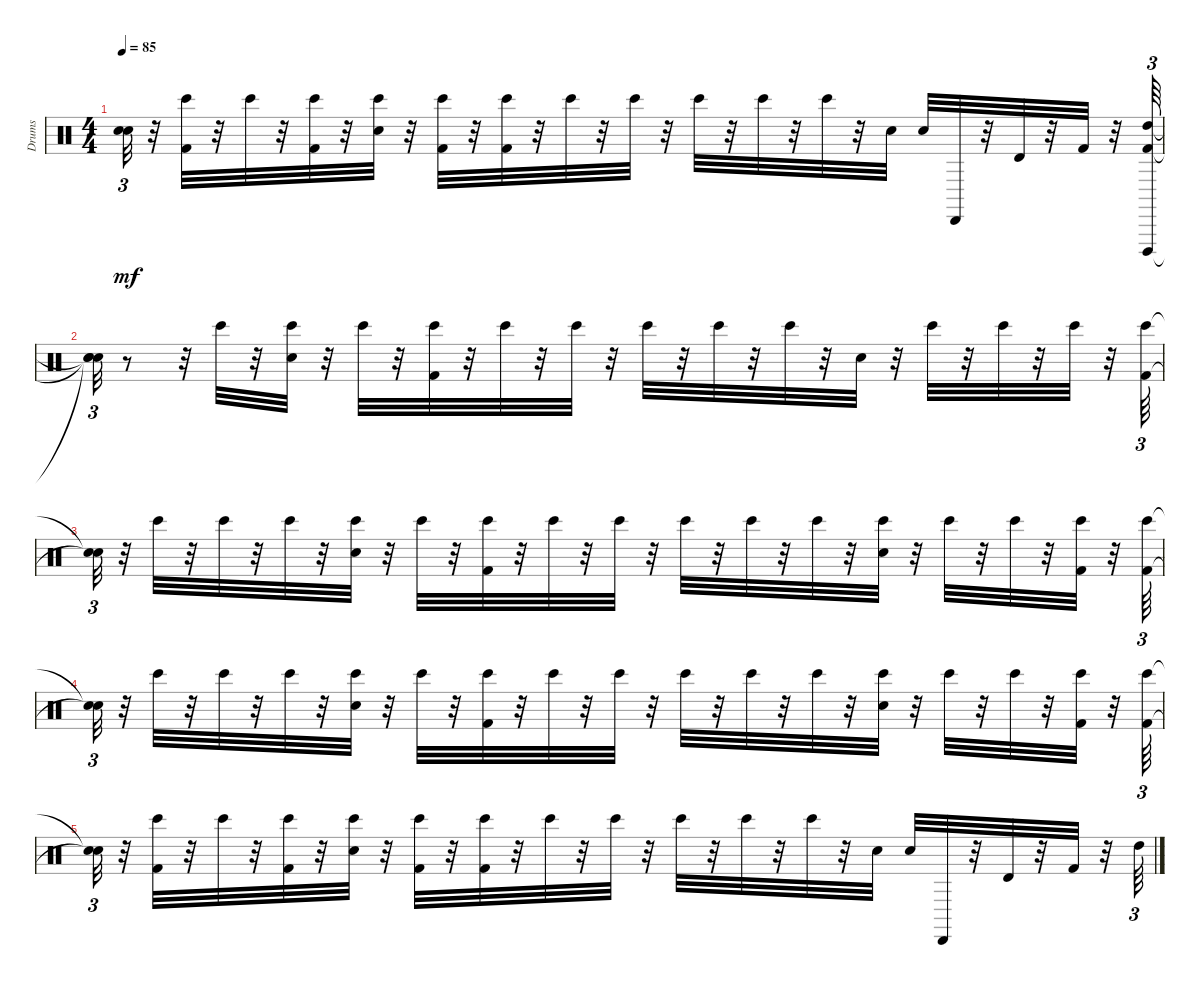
\track ("Drums" "Drums") {instrument percussion}
\staff {score}
\articulation defaults
\ts (4 4)
\tempo 85
\clef neutral
\ks c
("Snare (hit)"{t} "Snare (hit)"{t}).32{tu (3 2) dy mf} r.32 ("Kick (hit) 2" "Bongo High (hit)").32 r.32 "Bongo High (hit)".32 r.32 ("Bongo High (hit)" "Kick (hit) 2").32 r.32 ("Snare (hit) 2" "Bongo High (hit)").32 r.32 ("Kick (hit) 2" "Bongo High (hit)").32 r.32 ("Kick (hit) 2" "Bongo High (hit)").32 r.32 "Bongo High (hit)".32 r.32 "Bongo High (hit)".32 r.32 "Bongo High (hit)".32 r.32 "Bongo High (hit)".32 r.32 "Bongo High (hit)".32 r.32 "Snare (hit) 2".32 "Snare (hit) 2".32 "Cabasa (hit)".32 r.32 "Timbale high (hit)".32 r.32 "Kick (hit) 2".32 r.32 ("Kick (hit) 2" "High Tom (hit)" "Cuica (open)").64{tu (3 2)} |
("Snare (hit)"{t} "Snare (hit)"{t} "Snare (hit)"{t}).32{tu (3 2)} r.8 r.32 "Bongo High (hit)".32 r.32 ("Snare (hit) 2" "Bongo High (hit)").32 r.32 "Bongo High (hit)".32 r.32 ("Kick (hit) 2" "Bongo High (hit)").32 r.32 "Bongo High (hit)".32 r.32 "Bongo High (hit)".32 r.32 "Bongo High (hit)".32 r.32 "Bongo High (hit)".32 r.32 "Bongo High (hit)".32 r.32 "Snare (hit) 2".32 r.32 "Bongo High (hit)".32 r.32 "Bongo High (hit)".32 r.32 "Bongo High (hit)".32 r.32 ("Bongo High (hit)" "Kick (hit) 2").64{tu (3 2)} |
("Snare (hit)"{t} "Snare (hit)"{t}).32{tu (3 2)} r.32 "Bongo High (hit)".32 r.32 "Bongo High (hit)".32 r.32 "Bongo High (hit)".32 r.32 ("Snare (hit) 2" "Bongo High (hit)").32 r.32 "Bongo High (hit)".32 r.32 ("Kick (hit) 2" "Bongo High (hit)").32 r.32 "Bongo High (hit)".32 r.32 "Bongo High (hit)".32 r.32 "Bongo High (hit)".32 r.32 "Bongo High (hit)".32 r.32 "Bongo High (hit)".32 r.32 ("Snare (hit) 2" "Bongo High (hit)").32 r.32 "Bongo High (hit)".32 r.32 "Bongo High (hit)".32 r.32 ("Bongo High (hit)" "Kick (hit) 2").32 r.32 ("Kick (hit) 2" "Bongo High (hit)").64{tu (3 2)} |
("Snare (hit)"{t} "Snare (hit)"{t}).32{tu (3 2)} r.32 "Bongo High (hit)".32 r.32 "Bongo High (hit)".32 r.32 "Bongo High (hit)".32 r.32 ("Bongo High (hit)" "Snare (hit) 2").32 r.32 "Bongo High (hit)".32 r.32 ("Kick (hit) 2" "Bongo High (hit)").32 r.32 "Bongo High (hit)".32 r.32 "Bongo High (hit)".32 r.32 "Bongo High (hit)".32 r.32 "Bongo High (hit)".32 r.32 "Bongo High (hit)".32 r.32 ("Snare (hit) 2" "Bongo High (hit)").32 r.32 "Bongo High (hit)".32 r.32 "Bongo High (hit)".32 r.32 ("Kick (hit) 2" "Bongo High (hit)").32 r.32 ("Bongo High (hit)" "Kick (hit) 2").64{tu (3 2)} |
("Snare (hit)"{t} "Snare (hit)"{t}).32{tu (3 2)} r.32 ("Kick (hit) 2" "Bongo High (hit)").32 r.32 "Bongo High (hit)".32 r.32 ("Bongo High (hit)" "Kick (hit) 2").32 r.32 ("Snare (hit) 2" "Bongo High (hit)").32 r.32 ("Kick (hit) 2" "Bongo High (hit)").32 r.32 ("Kick (hit) 2" "Bongo High (hit)").32 r.32 "Bongo High (hit)".32 r.32 "Bongo High (hit)".32 r.32 "Bongo High (hit)".32 r.32 "Bongo High (hit)".32 r.32 "Bongo High (hit)".32 r.32 "Snare (hit) 2".32 "Snare (hit) 2".32 "Cabasa (hit)".32 r.32 "Timbale high (hit)".32 r.32 "Kick (hit) 2".32 r.32 "High Tom (hit)".64{tu (3 2)}
